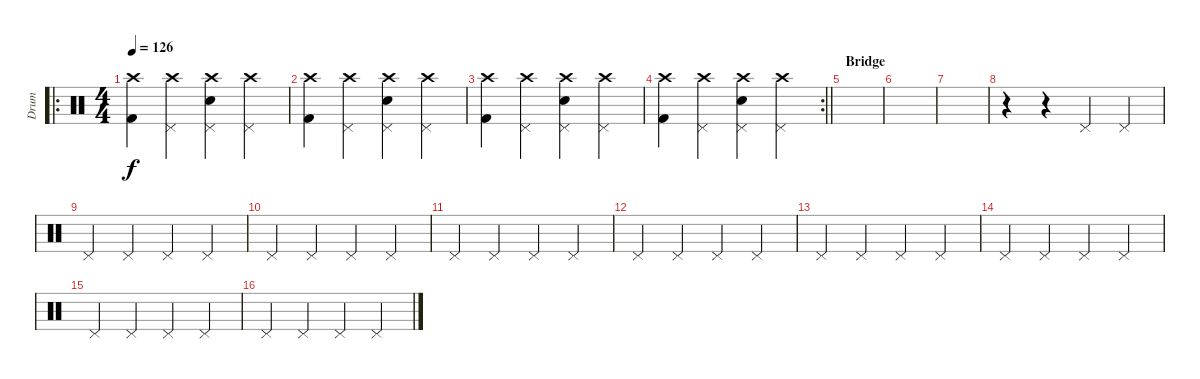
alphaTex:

\track ("Drum" "Drum") {instrument percussion}
\staff {score}
\articulation defaults
\ro
\ts (4 4)
\tempo 126
\clef neutral
\ks c
("Crash high (hit)" "Kick (hit) 2").4{dy f} ("Pedal Hi-Hat (hit)" "Crash high (hit)").4 ("Pedal Hi-Hat (hit)" "Crash high (hit)" "Electric Snare (hit)").4 ("Pedal Hi-Hat (hit)" "Crash high (hit)").4 |
("Crash high (hit)" "Kick (hit) 2").4 ("Pedal Hi-Hat (hit)" "Crash high (hit)").4 ("Pedal Hi-Hat (hit)" "Crash high (hit)" "Electric Snare (hit)").4 ("Pedal Hi-Hat (hit)" "Crash high (hit)").4 |
("Crash high (hit)" "Kick (hit) 2").4 ("Pedal Hi-Hat (hit)" "Crash high (hit)").4 ("Pedal Hi-Hat (hit)" "Crash high (hit)" "Electric Snare (hit)").4 ("Pedal Hi-Hat (hit)" "Crash high (hit)").4 |
\rc 2
\barLineRight lightlight
("Crash high (hit)" "Kick (hit) 2").4 ("Pedal Hi-Hat (hit)" "Crash high (hit)").4 ("Pedal Hi-Hat (hit)" "Crash high (hit)" "Electric Snare (hit)").4 ("Pedal Hi-Hat (hit)" "Crash high (hit)").4 |
\section ("" "Bridge")
|
|
|
r.4 r.4 "Pedal Hi-Hat (hit)".4 "Pedal Hi-Hat (hit)".4 |
"Pedal Hi-Hat (hit)".4 "Pedal Hi-Hat (hit)".4 "Pedal Hi-Hat (hit)".4 "Pedal Hi-Hat (hit)".4 |
"Pedal Hi-Hat (hit)".4 "Pedal Hi-Hat (hit)".4 "Pedal Hi-Hat (hit)".4 "Pedal Hi-Hat (hit)".4 |
"Pedal Hi-Hat (hit)".4 "Pedal Hi-Hat (hit)".4 "Pedal Hi-Hat (hit)".4 "Pedal Hi-Hat (hit)".4 |
"Pedal Hi-Hat (hit)".4 "Pedal Hi-Hat (hit)".4 "Pedal Hi-Hat (hit)".4 "Pedal Hi-Hat (hit)".4 |
"Pedal Hi-Hat (hit)".4 "Pedal Hi-Hat (hit)".4 "Pedal Hi-Hat (hit)".4 "Pedal Hi-Hat (hit)".4 |
"Pedal Hi-Hat (hit)".4 "Pedal Hi-Hat (hit)".4 "Pedal Hi-Hat (hit)".4 "Pedal Hi-Hat (hit)".4 |
"Pedal Hi-Hat (hit)".4 "Pedal Hi-Hat (hit)".4 "Pedal Hi-Hat (hit)".4 "Pedal Hi-Hat (hit)".4 |
"Pedal Hi-Hat (hit)".4 "Pedal Hi-Hat (hit)".4 "Pedal Hi-Hat (hit)".4 "Pedal Hi-Hat (hit)".4
